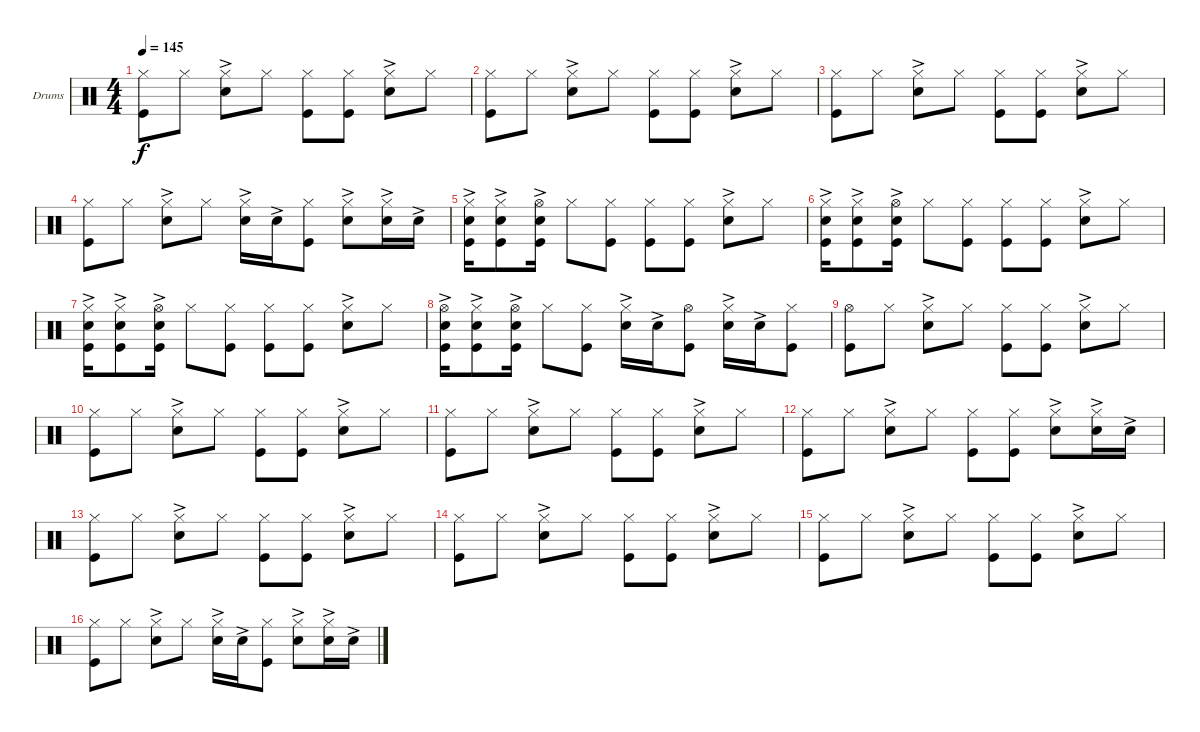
\defaultSystemsLayout 4
\bracketExtendMode groupsimilarinstruments
\firstSystemTrackNameOrientation horizontal
\otherSystemsTrackNameOrientation horizontal
\track ("Drumkit" "Drums") {instrument percussion}
\staff {score}
\articulation defaults
\ts (4 4)
\tempo 145
\clef neutral
\ks c
("Hi-Hat (closed)" "Kick (hit)").8{dy f} "Hi-Hat (closed)".8 ("Hi-Hat (closed)" "Snare (hit) 2"{ac}).8 "Hi-Hat (closed)".8 ("Hi-Hat (closed)" "Kick (hit)").8 ("Hi-Hat (closed)" "Kick (hit)").8 ("Hi-Hat (closed)" "Snare (hit) 2"{ac}).8 "Hi-Hat (closed)".8 |
("Hi-Hat (closed)" "Kick (hit)").8 "Hi-Hat (closed)".8 ("Hi-Hat (closed)" "Snare (hit) 2"{ac}).8 "Hi-Hat (closed)".8 ("Hi-Hat (closed)" "Kick (hit)").8 ("Hi-Hat (closed)" "Kick (hit)").8 ("Hi-Hat (closed)" "Snare (hit) 2"{ac}).8 "Hi-Hat (closed)".8 |
("Hi-Hat (closed)" "Kick (hit)").8 "Hi-Hat (closed)".8 ("Hi-Hat (closed)" "Snare (hit) 2"{ac}).8 "Hi-Hat (closed)".8 ("Hi-Hat (closed)" "Kick (hit)").8 ("Hi-Hat (closed)" "Kick (hit)").8 ("Hi-Hat (closed)" "Snare (hit) 2"{ac}).8 "Hi-Hat (closed)".8 |
("Hi-Hat (closed)" "Kick (hit)").8 "Hi-Hat (closed)".8 ("Hi-Hat (closed)" "Snare (hit) 2"{ac}).8 "Hi-Hat (closed)".8 ("Snare (hit) 2"{ac} "Hi-Hat (closed)").16 "Snare (hit) 2"{ac}.16 ("Kick (hit)" "Hi-Hat (closed)").8 ("Hi-Hat (closed)" "Snare (hit) 2"{ac}).8 ("Hi-Hat (closed)" "Snare (hit) 2"{ac}).16 "Snare (hit) 2"{ac}.16 |
("Snare (hit) 2"{ac} "Hi-Hat (closed)" "Kick (hit)").16 ("Snare (hit) 2"{ac} "Hi-Hat (closed)" "Kick (hit)").8 ("Snare (hit) 2"{ac} "Hi-Hat (open)" "Kick (hit)").16 "Hi-Hat (closed)".8 ("Hi-Hat (closed)" "Kick (hit)").8 ("Kick (hit)" "Hi-Hat (closed)").8 ("Kick (hit)" "Hi-Hat (closed)").8 ("Snare (hit) 2"{ac} "Hi-Hat (closed)").8 "Hi-Hat (closed)".8 |
("Snare (hit) 2"{ac} "Hi-Hat (closed)" "Kick (hit)").16 ("Snare (hit) 2"{ac} "Hi-Hat (closed)" "Kick (hit)").8 ("Snare (hit) 2"{ac} "Hi-Hat (open)" "Kick (hit)").16 "Hi-Hat (closed)".8 ("Hi-Hat (closed)" "Kick (hit)").8 ("Kick (hit)" "Hi-Hat (closed)").8 ("Kick (hit)" "Hi-Hat (closed)").8 ("Snare (hit) 2"{ac} "Hi-Hat (closed)").8 "Hi-Hat (closed)".8 |
("Snare (hit) 2"{ac} "Hi-Hat (closed)" "Kick (hit)").16 ("Snare (hit) 2"{ac} "Hi-Hat (closed)" "Kick (hit)").8 ("Snare (hit) 2"{ac} "Hi-Hat (open)" "Kick (hit)").16 "Hi-Hat (closed)".8 ("Hi-Hat (closed)" "Kick (hit)").8 ("Kick (hit)" "Hi-Hat (closed)").8 ("Kick (hit)" "Hi-Hat (closed)").8 ("Snare (hit) 2"{ac} "Hi-Hat (closed)").8 "Hi-Hat (closed)".8 |
("Snare (hit) 2"{ac} "Hi-Hat (open)" "Kick (hit)").16 ("Snare (hit) 2"{ac} "Hi-Hat (closed)" "Kick (hit)").8 ("Snare (hit) 2"{ac} "Hi-Hat (open)" "Kick (hit)").16 "Hi-Hat (closed)".8 ("Hi-Hat (closed)" "Kick (hit)").8 ("Hi-Hat (closed)" "Snare (hit) 2"{ac}).16 "Snare (hit) 2"{ac}.16 ("Kick (hit)" "Hi-Hat (open)").8 ("Snare (hit) 2"{ac} "Hi-Hat (closed)").16 "Snare (hit) 2"{ac}.16 ("Hi-Hat (closed)" "Kick (hit)").8 |
("Hi-Hat (open)" "Kick (hit)").8 "Hi-Hat (closed)".8 ("Hi-Hat (closed)" "Snare (hit) 2"{ac}).8 "Hi-Hat (closed)".8 ("Hi-Hat (closed)" "Kick (hit)").8 ("Hi-Hat (closed)" "Kick (hit)").8 ("Hi-Hat (closed)" "Snare (hit) 2"{ac}).8 "Hi-Hat (closed)".8 |
("Hi-Hat (closed)" "Kick (hit)").8 "Hi-Hat (closed)".8 ("Hi-Hat (closed)" "Snare (hit) 2"{ac}).8 "Hi-Hat (closed)".8 ("Hi-Hat (closed)" "Kick (hit)").8 ("Hi-Hat (closed)" "Kick (hit)").8 ("Hi-Hat (closed)" "Snare (hit) 2"{ac}).8 "Hi-Hat (closed)".8 |
("Hi-Hat (closed)" "Kick (hit)").8 "Hi-Hat (closed)".8 ("Hi-Hat (closed)" "Snare (hit) 2"{ac}).8 "Hi-Hat (closed)".8 ("Hi-Hat (closed)" "Kick (hit)").8 ("Hi-Hat (closed)" "Kick (hit)").8 ("Hi-Hat (closed)" "Snare (hit) 2"{ac}).8 "Hi-Hat (closed)".8 |
("Hi-Hat (closed)" "Kick (hit)").8 "Hi-Hat (closed)".8 ("Hi-Hat (closed)" "Snare (hit) 2"{ac}).8 "Hi-Hat (closed)".8 ("Hi-Hat (closed)" "Kick (hit)").8 ("Hi-Hat (closed)" "Kick (hit)").8 ("Hi-Hat (closed)" "Snare (hit) 2"{ac}).8 ("Hi-Hat (closed)" "Snare (hit) 2"{ac}).16 "Snare (hit) 2"{ac}.16 |
("Hi-Hat (closed)" "Kick (hit)").8 "Hi-Hat (closed)".8 ("Hi-Hat (closed)" "Snare (hit) 2"{ac}).8 "Hi-Hat (closed)".8 ("Hi-Hat (closed)" "Kick (hit)").8 ("Hi-Hat (closed)" "Kick (hit)").8 ("Hi-Hat (closed)" "Snare (hit) 2"{ac}).8 "Hi-Hat (closed)".8 |
("Hi-Hat (closed)" "Kick (hit)").8 "Hi-Hat (closed)".8 ("Hi-Hat (closed)" "Snare (hit) 2"{ac}).8 "Hi-Hat (closed)".8 ("Hi-Hat (closed)" "Kick (hit)").8 ("Hi-Hat (closed)" "Kick (hit)").8 ("Hi-Hat (closed)" "Snare (hit) 2"{ac}).8 "Hi-Hat (closed)".8 |
("Hi-Hat (closed)" "Kick (hit)").8 "Hi-Hat (closed)".8 ("Hi-Hat (closed)" "Snare (hit) 2"{ac}).8 "Hi-Hat (closed)".8 ("Hi-Hat (closed)" "Kick (hit)").8 ("Hi-Hat (closed)" "Kick (hit)").8 ("Hi-Hat (closed)" "Snare (hit) 2"{ac}).8 "Hi-Hat (closed)".8 |
("Hi-Hat (closed)" "Kick (hit)").8 "Hi-Hat (closed)".8 ("Hi-Hat (closed)" "Snare (hit) 2"{ac}).8 "Hi-Hat (closed)".8 ("Snare (hit) 2"{ac} "Hi-Hat (closed)").16 "Snare (hit) 2"{ac}.16 ("Kick (hit)" "Hi-Hat (closed)").8 ("Hi-Hat (closed)" "Snare (hit) 2"{ac}).8 ("Hi-Hat (closed)" "Snare (hit) 2"{ac}).16 "Snare (hit) 2"{ac}.16
